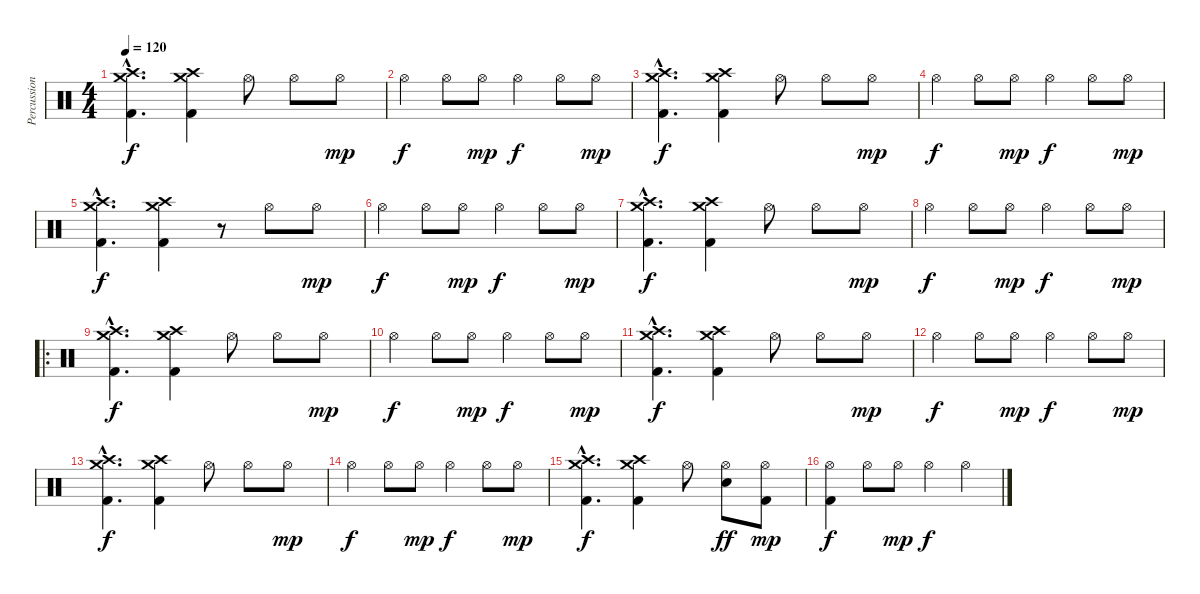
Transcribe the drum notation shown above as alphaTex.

\track ("Percussion" "Percussion") {instrument percussion}
\staff {score}
\articulation defaults
\ts (4 4)
\tempo 120
\clef neutral
\ks c
("Crash high (hit)"{hac} "Crash medium (hit)"{hac} "Kick (hit) 2"{hac}).4{d dy f} ("Crash high (hit)" "Crash medium (hit)" "Kick (hit) 2").4 "Hi-Hat (open)".8 "Hi-Hat (open)".8 "Hi-Hat (open)".8{dy mp} |
"Hi-Hat (open)".4{dy f} "Hi-Hat (open)".8 "Hi-Hat (open)".8{dy mp} "Hi-Hat (open)".4{dy f} "Hi-Hat (open)".8 "Hi-Hat (open)".8{dy mp} |
("Crash high (hit)"{hac} "Crash medium (hit)"{hac} "Kick (hit) 2"{hac}).4{d dy f} ("Crash high (hit)" "Crash medium (hit)" "Kick (hit) 2").4 "Hi-Hat (open)".8 "Hi-Hat (open)".8 "Hi-Hat (open)".8{dy mp} |
"Hi-Hat (open)".4{dy f} "Hi-Hat (open)".8 "Hi-Hat (open)".8{dy mp} "Hi-Hat (open)".4{dy f} "Hi-Hat (open)".8 "Hi-Hat (open)".8{dy mp} |
("Crash high (hit)"{hac} "Crash medium (hit)"{hac} "Kick (hit) 2"{hac}).4{d dy f} ("Crash high (hit)" "Crash medium (hit)" "Kick (hit) 2").4 r.8 "Hi-Hat (open)".8 "Hi-Hat (open)".8{dy mp} |
"Hi-Hat (open)".4{dy f} "Hi-Hat (open)".8 "Hi-Hat (open)".8{dy mp} "Hi-Hat (open)".4{dy f} "Hi-Hat (open)".8 "Hi-Hat (open)".8{dy mp} |
("Crash high (hit)"{hac} "Crash medium (hit)"{hac} "Kick (hit) 2"{hac}).4{d dy f} ("Crash high (hit)" "Crash medium (hit)" "Kick (hit) 2").4 "Hi-Hat (open)".8 "Hi-Hat (open)".8 "Hi-Hat (open)".8{dy mp} |
"Hi-Hat (open)".4{dy f} "Hi-Hat (open)".8 "Hi-Hat (open)".8{dy mp} "Hi-Hat (open)".4{dy f} "Hi-Hat (open)".8 "Hi-Hat (open)".8{dy mp} |
\ro
("Crash high (hit)"{hac} "Crash medium (hit)"{hac} "Kick (hit) 2"{hac}).4{d dy f} ("Crash high (hit)" "Crash medium (hit)" "Kick (hit) 2").4 "Hi-Hat (open)".8 "Hi-Hat (open)".8 "Hi-Hat (open)".8{dy mp} |
"Hi-Hat (open)".4{dy f} "Hi-Hat (open)".8 "Hi-Hat (open)".8{dy mp} "Hi-Hat (open)".4{dy f} "Hi-Hat (open)".8 "Hi-Hat (open)".8{dy mp} |
("Crash high (hit)"{hac} "Crash medium (hit)"{hac} "Kick (hit) 2"{hac}).4{d dy f} ("Crash high (hit)" "Crash medium (hit)" "Kick (hit) 2").4 "Hi-Hat (open)".8 "Hi-Hat (open)".8 "Hi-Hat (open)".8{dy mp} |
"Hi-Hat (open)".4{dy f} "Hi-Hat (open)".8 "Hi-Hat (open)".8{dy mp} "Hi-Hat (open)".4{dy f} "Hi-Hat (open)".8 "Hi-Hat (open)".8{dy mp} |
("Crash high (hit)"{hac} "Crash medium (hit)"{hac} "Kick (hit) 2"{hac}).4{d dy f} ("Crash high (hit)" "Crash medium (hit)" "Kick (hit) 2").4 "Hi-Hat (open)".8 "Hi-Hat (open)".8 "Hi-Hat (open)".8{dy mp} |
"Hi-Hat (open)".4{dy f} "Hi-Hat (open)".8 "Hi-Hat (open)".8{dy mp} "Hi-Hat (open)".4{dy f} "Hi-Hat (open)".8 "Hi-Hat (open)".8{dy mp} |
("Crash high (hit)"{hac} "Crash medium (hit)"{hac} "Kick (hit) 2"{hac}).4{d dy f} ("Crash high (hit)" "Crash medium (hit)" "Kick (hit) 2").4 "Hi-Hat (open)".8 ("Hi-Hat (open)" "Electric Snare (hit)").8{dy ff} ("Hi-Hat (open)" "Kick (hit) 2").8{dy mp} |
("Hi-Hat (open)" "Kick (hit) 2").4{dy f} "Hi-Hat (open)".8 "Hi-Hat (open)".8{dy mp} "Hi-Hat (open)".4{dy f} "Hi-Hat (open)".4
